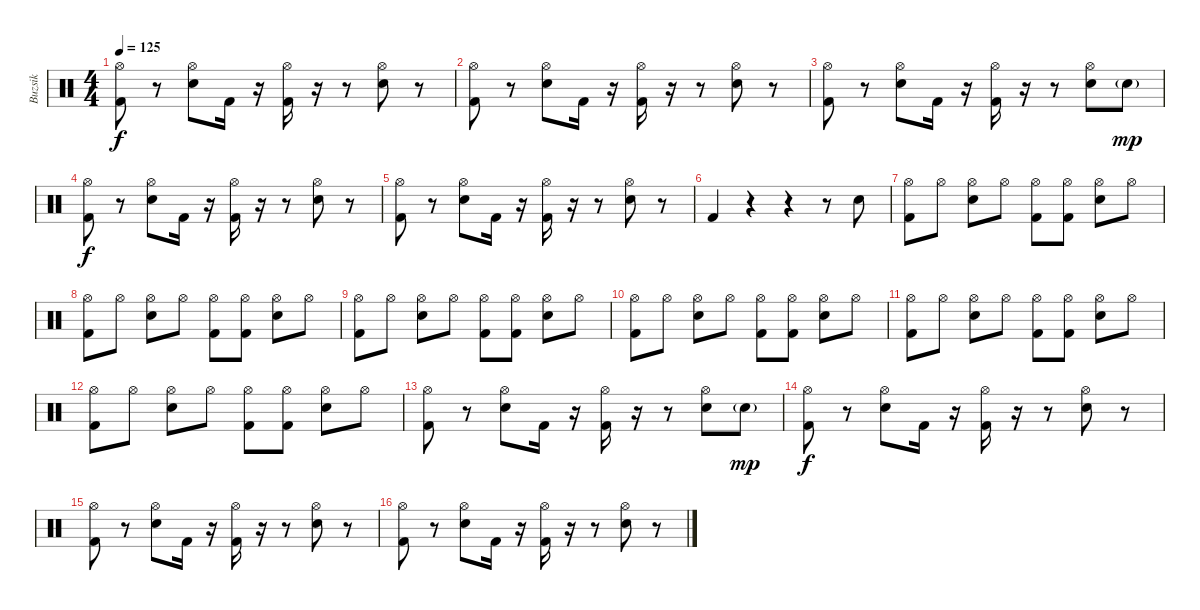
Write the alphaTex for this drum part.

\track ("Buzsik" "Buzsik") {instrument percussion}
\staff {score}
\articulation defaults
\ts (4 4)
\tempo 125
\clef neutral
\ks c
("Hi-Hat (open)" "Kick (hit) 2").8{dy f} r.8 ("Hi-Hat (open)" "Electric Snare (hit)").8 "Kick (hit) 2".16 r.16 ("Hi-Hat (open)" "Kick (hit) 2").16 r.16 r.8 ("Hi-Hat (open)" "Electric Snare (hit)").8 r.8 |
("Hi-Hat (open)" "Kick (hit) 2").8 r.8 ("Hi-Hat (open)" "Electric Snare (hit)").8 "Kick (hit) 2".16 r.16 ("Hi-Hat (open)" "Kick (hit) 2").16 r.16 r.8 ("Hi-Hat (open)" "Electric Snare (hit)").8 r.8 |
("Hi-Hat (open)" "Kick (hit) 2").8 r.8 ("Hi-Hat (open)" "Electric Snare (hit)").8 "Kick (hit) 2".16 r.16 ("Hi-Hat (open)" "Kick (hit) 2").16 r.16 r.8 ("Hi-Hat (open)" "Electric Snare (hit)").8 "Electric Snare (hit)"{g}.8{dy mp} |
("Hi-Hat (open)" "Kick (hit) 2").8{dy f} r.8 ("Hi-Hat (open)" "Electric Snare (hit)").8 "Kick (hit) 2".16 r.16 ("Hi-Hat (open)" "Kick (hit) 2").16 r.16 r.8 ("Hi-Hat (open)" "Electric Snare (hit)").8 r.8 |
("Hi-Hat (open)" "Kick (hit) 2").8 r.8 ("Hi-Hat (open)" "Electric Snare (hit)").8 "Kick (hit) 2".16 r.16 ("Hi-Hat (open)" "Kick (hit) 2").16 r.16 r.8 ("Hi-Hat (open)" "Electric Snare (hit)").8 r.8 |
"Kick (hit) 2".4 r.4 r.4 r.8 "Electric Snare (hit)".8 |
("Hi-Hat (open)" "Kick (hit) 2").8 "Hi-Hat (open)".8 ("Hi-Hat (open)" "Electric Snare (hit)").8 "Hi-Hat (open)".8 ("Hi-Hat (open)" "Kick (hit) 2").8 ("Hi-Hat (open)" "Kick (hit) 2").8 ("Hi-Hat (open)" "Electric Snare (hit)").8 "Hi-Hat (open)".8 |
("Hi-Hat (open)" "Kick (hit) 2").8 "Hi-Hat (open)".8 ("Hi-Hat (open)" "Electric Snare (hit)").8 "Hi-Hat (open)".8 ("Hi-Hat (open)" "Kick (hit) 2").8 ("Hi-Hat (open)" "Kick (hit) 2").8 ("Hi-Hat (open)" "Electric Snare (hit)").8 "Hi-Hat (open)".8 |
("Hi-Hat (open)" "Kick (hit) 2").8 "Hi-Hat (open)".8 ("Hi-Hat (open)" "Electric Snare (hit)").8 "Hi-Hat (open)".8 ("Hi-Hat (open)" "Kick (hit) 2").8 ("Hi-Hat (open)" "Kick (hit) 2").8 ("Hi-Hat (open)" "Electric Snare (hit)").8 "Hi-Hat (open)".8 |
("Hi-Hat (open)" "Kick (hit) 2").8 "Hi-Hat (open)".8 ("Hi-Hat (open)" "Electric Snare (hit)").8 "Hi-Hat (open)".8 ("Hi-Hat (open)" "Kick (hit) 2").8 ("Hi-Hat (open)" "Kick (hit) 2").8 ("Hi-Hat (open)" "Electric Snare (hit)").8 "Hi-Hat (open)".8 |
("Hi-Hat (open)" "Kick (hit) 2").8 "Hi-Hat (open)".8 ("Hi-Hat (open)" "Electric Snare (hit)").8 "Hi-Hat (open)".8 ("Hi-Hat (open)" "Kick (hit) 2").8 ("Hi-Hat (open)" "Kick (hit) 2").8 ("Hi-Hat (open)" "Electric Snare (hit)").8 "Hi-Hat (open)".8 |
("Hi-Hat (open)" "Kick (hit) 2").8 "Hi-Hat (open)".8 ("Hi-Hat (open)" "Electric Snare (hit)").8 "Hi-Hat (open)".8 ("Hi-Hat (open)" "Kick (hit) 2").8 ("Hi-Hat (open)" "Kick (hit) 2").8 ("Hi-Hat (open)" "Electric Snare (hit)").8 "Hi-Hat (open)".8 |
("Hi-Hat (open)" "Kick (hit) 2").8 r.8 ("Hi-Hat (open)" "Electric Snare (hit)").8 "Kick (hit) 2".16 r.16 ("Hi-Hat (open)" "Kick (hit) 2").16 r.16 r.8 ("Hi-Hat (open)" "Electric Snare (hit)").8 "Electric Snare (hit)"{g}.8{dy mp} |
("Hi-Hat (open)" "Kick (hit) 2").8{dy f} r.8 ("Hi-Hat (open)" "Electric Snare (hit)").8 "Kick (hit) 2".16 r.16 ("Hi-Hat (open)" "Kick (hit) 2").16 r.16 r.8 ("Hi-Hat (open)" "Electric Snare (hit)").8 r.8 |
("Hi-Hat (open)" "Kick (hit) 2").8 r.8 ("Hi-Hat (open)" "Electric Snare (hit)").8 "Kick (hit) 2".16 r.16 ("Hi-Hat (open)" "Kick (hit) 2").16 r.16 r.8 ("Hi-Hat (open)" "Electric Snare (hit)").8 r.8 |
("Hi-Hat (open)" "Kick (hit) 2").8 r.8 ("Hi-Hat (open)" "Electric Snare (hit)").8 "Kick (hit) 2".16 r.16 ("Hi-Hat (open)" "Kick (hit) 2").16 r.16 r.8 ("Hi-Hat (open)" "Electric Snare (hit)").8 r.8
